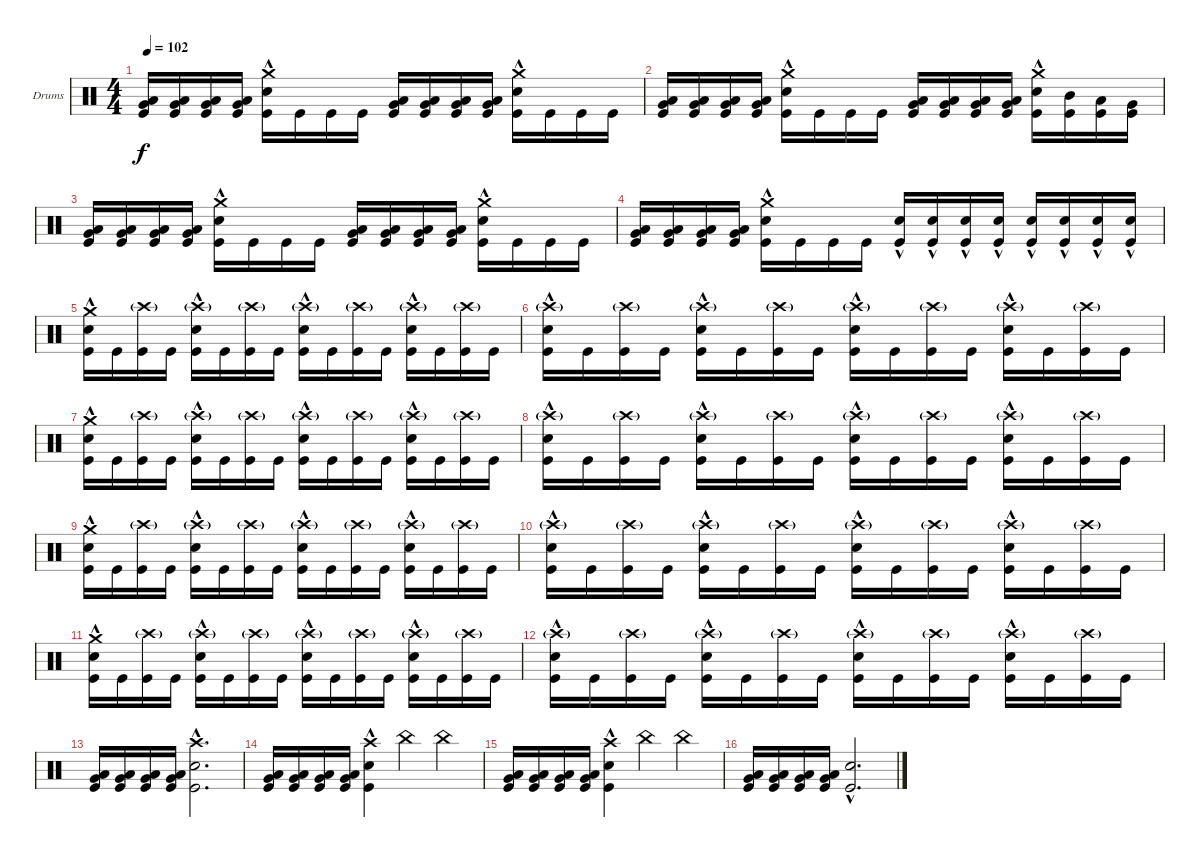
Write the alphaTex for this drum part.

\bracketExtendMode groupsimilarinstruments
\firstSystemTrackNameOrientation horizontal
\otherSystemsTrackNameOrientation horizontal
\track ("Drumkit" "Drums") {instrument percussion}
\staff {score}
\articulation defaults
\ts (4 4)
\tempo 102
\clef neutral
\scale
0.333333
\ks c
("Kick (hit)" "Very Low Tom (hit)" "Low Tom (hit)").16{dy f} ("Kick (hit)" "Very Low Tom (hit)" "Low Tom (hit)").16 ("Kick (hit)" "Very Low Tom (hit)" "Low Tom (hit)").16 ("Kick (hit)" "Very Low Tom (hit)" "Low Tom (hit)").16 ("Kick (hit)" "Snare (hit) 2"{hac} "Crash medium (hit)").16 "Kick (hit)".16 "Kick (hit)".16 "Kick (hit)".16 ("Kick (hit)" "Very Low Tom (hit)" "Low Tom (hit)").16 ("Kick (hit)" "Very Low Tom (hit)" "Low Tom (hit)").16 ("Kick (hit)" "Very Low Tom (hit)" "Low Tom (hit)").16 ("Kick (hit)" "Very Low Tom (hit)" "Low Tom (hit)").16 ("Kick (hit)" "Snare (hit) 2"{hac} "Crash medium (hit)").16 "Kick (hit)".16 "Kick (hit)".16 "Kick (hit)".16 |
\scale
0.333333 ("Kick (hit)" "Very Low Tom (hit)" "Low Tom (hit)").16 ("Kick (hit)" "Very Low Tom (hit)" "Low Tom (hit)").16 ("Kick (hit)" "Very Low Tom (hit)" "Low Tom (hit)").16 ("Kick (hit)" "Very Low Tom (hit)" "Low Tom (hit)").16 ("Kick (hit)" "Snare (hit) 2"{hac} "Crash medium (hit)").16 "Kick (hit)".16 "Kick (hit)".16 "Kick (hit)".16 ("Kick (hit)" "Very Low Tom (hit)" "Low Tom (hit)").16 ("Kick (hit)" "Very Low Tom (hit)" "Low Tom (hit)").16 ("Kick (hit)" "Very Low Tom (hit)" "Low Tom (hit)").16 ("Kick (hit)" "Very Low Tom (hit)" "Low Tom (hit)").16 ("Kick (hit)" "Snare (hit) 2"{hac} "Crash medium (hit)").16 ("Kick (hit)" "Mid Tom (hit)").16 ("Kick (hit)" "Low Tom (hit)").16 ("Kick (hit)" "Very Low Tom (hit)").16 |
\scale
0.333333 ("Kick (hit)" "Very Low Tom (hit)" "Low Tom (hit)").16 ("Kick (hit)" "Very Low Tom (hit)" "Low Tom (hit)").16 ("Kick (hit)" "Very Low Tom (hit)" "Low Tom (hit)").16 ("Kick (hit)" "Very Low Tom (hit)" "Low Tom (hit)").16 ("Kick (hit)" "Snare (hit) 2"{hac} "Crash medium (hit)").16 "Kick (hit)".16 "Kick (hit)".16 "Kick (hit)".16 ("Kick (hit)" "Very Low Tom (hit)" "Low Tom (hit)").16 ("Kick (hit)" "Very Low Tom (hit)" "Low Tom (hit)").16 ("Kick (hit)" "Very Low Tom (hit)" "Low Tom (hit)").16 ("Kick (hit)" "Very Low Tom (hit)" "Low Tom (hit)").16 ("Kick (hit)" "Snare (hit) 2"{hac} "Crash medium (hit)").16 "Kick (hit)".16 "Kick (hit)".16 "Kick (hit)".16 |
\scale
0.333333 ("Kick (hit)" "Very Low Tom (hit)" "Low Tom (hit)").16 ("Kick (hit)" "Very Low Tom (hit)" "Low Tom (hit)").16 ("Kick (hit)" "Very Low Tom (hit)" "Low Tom (hit)").16 ("Kick (hit)" "Very Low Tom (hit)" "Low Tom (hit)").16 ("Kick (hit)" "Snare (hit) 2"{hac} "Crash medium (hit)").16 "Kick (hit)".16 "Kick (hit)".16 "Kick (hit)".16 ("Kick (hit)" "Snare (hit) 2"{hac}).16 ("Kick (hit)" "Snare (hit) 2"{hac}).16 ("Kick (hit)" "Snare (hit) 2"{hac}).16 ("Kick (hit)" "Snare (hit) 2"{hac}).16 ("Kick (hit)" "Snare (hit) 2"{hac}).16 ("Kick (hit)" "Snare (hit) 2"{hac}).16 ("Kick (hit)" "Snare (hit) 2"{hac}).16 ("Kick (hit)" "Snare (hit) 2"{hac}).16 |
\scale
0.333333 ("Kick (hit)" "Snare (hit) 2"{hac} "Crash medium (hit)").16 "Kick (hit)".16 ("Kick (hit)" "Crash high (hit)"{g}).16 "Kick (hit)".16 ("Kick (hit)" "Snare (hit) 2"{hac} "Crash high (hit)"{g}).16 "Kick (hit)".16 ("Kick (hit)" "Crash high (hit)"{g}).16 "Kick (hit)".16 ("Kick (hit)" "Snare (hit) 2"{hac} "Crash high (hit)"{g}).16 "Kick (hit)".16 ("Kick (hit)" "Crash high (hit)"{g}).16 "Kick (hit)".16 ("Kick (hit)" "Snare (hit) 2"{hac} "Crash high (hit)"{g}).16 "Kick (hit)".16 ("Kick (hit)" "Crash high (hit)"{g}).16 "Kick (hit)".16 |
\scale
0.333333 ("Kick (hit)" "Snare (hit) 2"{hac} "Crash high (hit)"{g}).16 "Kick (hit)".16 ("Kick (hit)" "Crash high (hit)"{g}).16 "Kick (hit)".16 ("Kick (hit)" "Snare (hit) 2"{hac} "Crash high (hit)"{g}).16 "Kick (hit)".16 ("Kick (hit)" "Crash high (hit)"{g}).16 "Kick (hit)".16 ("Kick (hit)" "Snare (hit) 2"{hac} "Crash high (hit)"{g}).16 "Kick (hit)".16 ("Kick (hit)" "Crash high (hit)"{g}).16 "Kick (hit)".16 ("Kick (hit)" "Snare (hit) 2"{hac} "Crash high (hit)"{g}).16 "Kick (hit)".16 ("Kick (hit)" "Crash high (hit)"{g}).16 "Kick (hit)".16 |
\scale
0.333333 ("Kick (hit)" "Snare (hit) 2"{hac} "Crash medium (hit)").16 "Kick (hit)".16 ("Kick (hit)" "Crash high (hit)"{g}).16 "Kick (hit)".16 ("Kick (hit)" "Snare (hit) 2"{hac} "Crash high (hit)"{g}).16 "Kick (hit)".16 ("Kick (hit)" "Crash high (hit)"{g}).16 "Kick (hit)".16 ("Kick (hit)" "Snare (hit) 2"{hac} "Crash high (hit)"{g}).16 "Kick (hit)".16 ("Kick (hit)" "Crash high (hit)"{g}).16 "Kick (hit)".16 ("Kick (hit)" "Snare (hit) 2"{hac} "Crash high (hit)"{g}).16 "Kick (hit)".16 ("Kick (hit)" "Crash high (hit)"{g}).16 "Kick (hit)".16 |
\scale
0.333333 ("Kick (hit)" "Snare (hit) 2"{hac} "Crash high (hit)"{g}).16 "Kick (hit)".16 ("Kick (hit)" "Crash high (hit)"{g}).16 "Kick (hit)".16 ("Kick (hit)" "Snare (hit) 2"{hac} "Crash high (hit)"{g}).16 "Kick (hit)".16 ("Kick (hit)" "Crash high (hit)"{g}).16 "Kick (hit)".16 ("Kick (hit)" "Snare (hit) 2"{hac} "Crash high (hit)"{g}).16 "Kick (hit)".16 ("Kick (hit)" "Crash high (hit)"{g}).16 "Kick (hit)".16 ("Kick (hit)" "Snare (hit) 2"{hac} "Crash high (hit)"{g}).16 "Kick (hit)".16 ("Kick (hit)" "Crash high (hit)"{g}).16 "Kick (hit)".16 |
\scale
0.333333 ("Kick (hit)" "Snare (hit) 2"{hac} "Crash medium (hit)").16 "Kick (hit)".16 ("Kick (hit)" "Crash high (hit)"{g}).16 "Kick (hit)".16 ("Kick (hit)" "Snare (hit) 2"{hac} "Crash high (hit)"{g}).16 "Kick (hit)".16 ("Kick (hit)" "Crash high (hit)"{g}).16 "Kick (hit)".16 ("Kick (hit)" "Snare (hit) 2"{hac} "Crash high (hit)"{g}).16 "Kick (hit)".16 ("Kick (hit)" "Crash high (hit)"{g}).16 "Kick (hit)".16 ("Kick (hit)" "Snare (hit) 2"{hac} "Crash high (hit)"{g}).16 "Kick (hit)".16 ("Kick (hit)" "Crash high (hit)"{g}).16 "Kick (hit)".16 |
\scale
0.333333 ("Kick (hit)" "Snare (hit) 2"{hac} "Crash high (hit)"{g}).16 "Kick (hit)".16 ("Kick (hit)" "Crash high (hit)"{g}).16 "Kick (hit)".16 ("Kick (hit)" "Snare (hit) 2"{hac} "Crash high (hit)"{g}).16 "Kick (hit)".16 ("Kick (hit)" "Crash high (hit)"{g}).16 "Kick (hit)".16 ("Kick (hit)" "Snare (hit) 2"{hac} "Crash high (hit)"{g}).16 "Kick (hit)".16 ("Kick (hit)" "Crash high (hit)"{g}).16 "Kick (hit)".16 ("Kick (hit)" "Snare (hit) 2"{hac} "Crash high (hit)"{g}).16 "Kick (hit)".16 ("Kick (hit)" "Crash high (hit)"{g}).16 "Kick (hit)".16 |
\scale
0.333333 ("Kick (hit)" "Snare (hit) 2"{hac} "Crash medium (hit)").16 "Kick (hit)".16 ("Kick (hit)" "Crash high (hit)"{g}).16 "Kick (hit)".16 ("Kick (hit)" "Snare (hit) 2"{hac} "Crash high (hit)"{g}).16 "Kick (hit)".16 ("Kick (hit)" "Crash high (hit)"{g}).16 "Kick (hit)".16 ("Kick (hit)" "Snare (hit) 2"{hac} "Crash high (hit)"{g}).16 "Kick (hit)".16 ("Kick (hit)" "Crash high (hit)"{g}).16 "Kick (hit)".16 ("Kick (hit)" "Snare (hit) 2"{hac} "Crash high (hit)"{g}).16 "Kick (hit)".16 ("Kick (hit)" "Crash high (hit)"{g}).16 "Kick (hit)".16 |
\scale
0.333333 ("Kick (hit)" "Snare (hit) 2"{hac} "Crash high (hit)"{g}).16 "Kick (hit)".16 ("Kick (hit)" "Crash high (hit)"{g}).16 "Kick (hit)".16 ("Kick (hit)" "Snare (hit) 2"{hac} "Crash high (hit)"{g}).16 "Kick (hit)".16 ("Kick (hit)" "Crash high (hit)"{g}).16 "Kick (hit)".16 ("Kick (hit)" "Snare (hit) 2"{hac} "Crash high (hit)"{g}).16 "Kick (hit)".16 ("Kick (hit)" "Crash high (hit)"{g}).16 "Kick (hit)".16 ("Kick (hit)" "Snare (hit) 2"{hac} "Crash high (hit)"{g}).16 "Kick (hit)".16 ("Kick (hit)" "Crash high (hit)"{g}).16 "Kick (hit)".16 |
\scale
0.333333 ("Kick (hit)" "Very Low Tom (hit)" "Low Tom (hit)").16 ("Kick (hit)" "Very Low Tom (hit)" "Low Tom (hit)").16 ("Kick (hit)" "Very Low Tom (hit)" "Low Tom (hit)").16 ("Kick (hit)" "Very Low Tom (hit)" "Low Tom (hit)").16 ("Kick (hit)" "Snare (hit) 2"{hac} "Crash high (hit)").2{d} |
\scale
0.333333 ("Kick (hit)" "Very Low Tom (hit)" "Low Tom (hit)").16 ("Kick (hit)" "Very Low Tom (hit)" "Low Tom (hit)").16 ("Kick (hit)" "Very Low Tom (hit)" "Low Tom (hit)").16 ("Kick (hit)" "Very Low Tom (hit)" "Low Tom (hit)").16 ("Kick (hit)" "Snare (hit) 2"{hac} "Crash high (hit)").4 "China (hit)".4 "China (hit)".4 |
\scale
0.333333 ("Kick (hit)" "Very Low Tom (hit)" "Low Tom (hit)").16 ("Kick (hit)" "Very Low Tom (hit)" "Low Tom (hit)").16 ("Kick (hit)" "Very Low Tom (hit)" "Low Tom (hit)").16 ("Kick (hit)" "Very Low Tom (hit)" "Low Tom (hit)").16 ("Kick (hit)" "Snare (hit) 2"{hac} "Crash high (hit)").4 "China (hit)".4 "China (hit)".4 |
("Kick (hit)" "Very Low Tom (hit)" "Low Tom (hit)").16 ("Kick (hit)" "Very Low Tom (hit)" "Low Tom (hit)").16 ("Kick (hit)" "Very Low Tom (hit)" "Low Tom (hit)").16 ("Kick (hit)" "Very Low Tom (hit)" "Low Tom (hit)").16 ("Kick (hit)" "Snare (hit) 2"{hac}).2{d}
